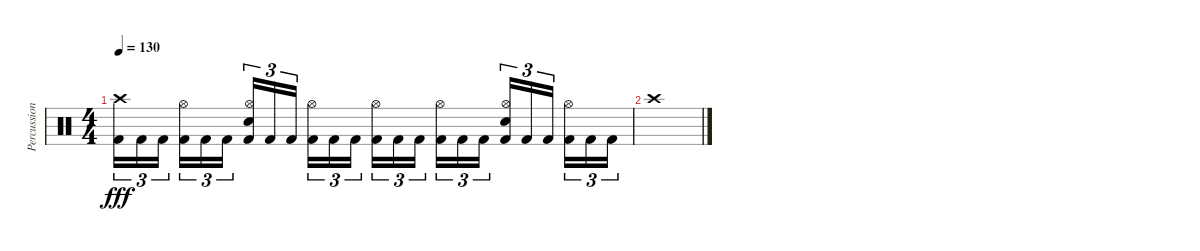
\track ("Percussion" "Percussion") {instrument percussion}
\staff {score}
\articulation defaults
\ts (4 4)
\tempo 130
\clef neutral
\ks c
("Crash high (hit)" "Kick (hit) 2").16{tu (3 2) dy fff} "Kick (hit) 2".16{tu (3 2)} "Kick (hit) 2".16{tu (3 2) beam splitsecondary} ("Hi-Hat (open)" "Kick (hit) 2").16{tu (3 2)} "Kick (hit) 2".16{tu (3 2)} "Kick (hit) 2".16{tu (3 2)} ("Hi-Hat (open)" "Snare (hit) 2" "Kick (hit) 2").16{tu (3 2)} "Kick (hit) 2".16{tu (3 2)} "Kick (hit) 2".16{tu (3 2) beam splitsecondary} ("Hi-Hat (open)" "Kick (hit) 2").16{tu (3 2)} "Kick (hit) 2".16{tu (3 2)} "Kick (hit) 2".16{tu (3 2)} ("Hi-Hat (open)" "Kick (hit) 2").16{tu (3 2)} "Kick (hit) 2".16{tu (3 2)} "Kick (hit) 2".16{tu (3 2) beam splitsecondary} ("Hi-Hat (open)" "Kick (hit) 2").16{tu (3 2)} "Kick (hit) 2".16{tu (3 2)} "Kick (hit) 2".16{tu (3 2)} ("Hi-Hat (open)" "Snare (hit) 2" "Kick (hit) 2").16{tu (3 2)} "Kick (hit) 2".16{tu (3 2)} "Kick (hit) 2".16{tu (3 2) beam splitsecondary} ("Hi-Hat (open)" "Kick (hit) 2").16{tu (3 2)} "Kick (hit) 2".16{tu (3 2)} "Kick (hit) 2".16{tu (3 2)} |
"Crash high (hit)".1
